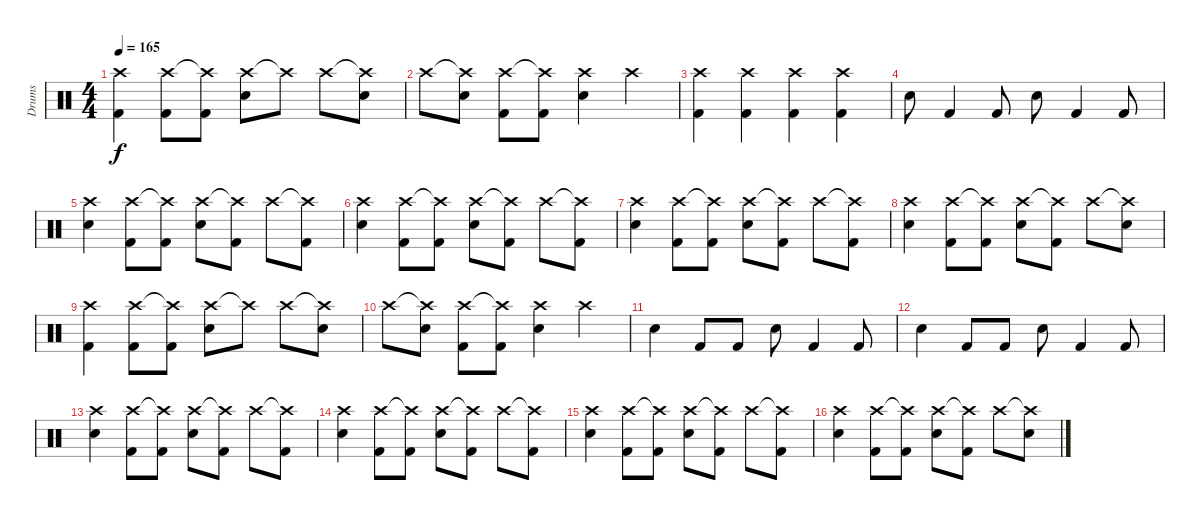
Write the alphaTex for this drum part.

\track ("Drums" "Drums") {instrument percussion}
\staff {score}
\articulation defaults
\ts (4 4)
\tempo 165
\clef neutral
\ks c
("Crash high (hit)" "Kick (hit) 2").4{dy f} ("Crash high (hit)" "Kick (hit) 2").8 ("Crash high (hit)"{t} "Kick (hit) 2").8 ("Crash high (hit)" "Snare (hit) 2").8 "Crash high (hit)"{t}.8 "Crash high (hit)".8 ("Crash high (hit)"{t} "Snare (hit) 2").8 |
"Crash high (hit)".8 ("Crash high (hit)"{t} "Snare (hit) 2").8 ("Crash high (hit)" "Kick (hit) 2").8 ("Crash high (hit)"{t} "Kick (hit) 2").8 ("Crash high (hit)" "Snare (hit) 2").4 "Crash high (hit)".4 |
("Crash high (hit)" "Kick (hit) 2").4 ("Crash high (hit)" "Kick (hit) 2").4 ("Crash high (hit)" "Kick (hit) 2").4 ("Crash high (hit)" "Kick (hit) 2").4 |
"Snare (hit) 2".8 "Kick (hit) 2".4 "Kick (hit) 2".8 "Snare (hit) 2".8 "Kick (hit) 2".4 "Kick (hit) 2".8 |
("Crash high (hit)" "Snare (hit) 2").4 ("Crash high (hit)" "Kick (hit) 2").8 ("Crash high (hit)"{t} "Kick (hit) 2").8 ("Crash high (hit)" "Snare (hit) 2").8 ("Crash high (hit)"{t} "Kick (hit) 2").8 "Crash high (hit)".8 ("Crash high (hit)"{t} "Kick (hit) 2").8 |
("Crash high (hit)" "Snare (hit) 2").4 ("Crash high (hit)" "Kick (hit) 2").8 ("Crash high (hit)"{t} "Kick (hit) 2").8 ("Crash high (hit)" "Snare (hit) 2").8 ("Crash high (hit)"{t} "Kick (hit) 2").8 "Crash high (hit)".8 ("Crash high (hit)"{t} "Kick (hit) 2").8 |
("Crash high (hit)" "Snare (hit) 2").4 ("Crash high (hit)" "Kick (hit) 2").8 ("Crash high (hit)"{t} "Kick (hit) 2").8 ("Crash high (hit)" "Snare (hit) 2").8 ("Crash high (hit)"{t} "Kick (hit) 2").8 "Crash high (hit)".8 ("Crash high (hit)"{t} "Kick (hit) 2").8 |
("Crash high (hit)" "Snare (hit) 2").4 ("Crash high (hit)" "Kick (hit) 2").8 ("Crash high (hit)"{t} "Kick (hit) 2").8 ("Crash high (hit)" "Snare (hit) 2").8 ("Crash high (hit)"{t} "Kick (hit) 2").8 "Crash high (hit)".8 ("Crash high (hit)"{t} "Snare (hit) 2").8 |
("Crash high (hit)" "Kick (hit) 2").4 ("Crash high (hit)" "Kick (hit) 2").8 ("Crash high (hit)"{t} "Kick (hit) 2").8 ("Crash high (hit)" "Snare (hit) 2").8 "Crash high (hit)"{t}.8 "Crash high (hit)".8 ("Crash high (hit)"{t} "Snare (hit) 2").8 |
"Crash high (hit)".8 ("Crash high (hit)"{t} "Snare (hit) 2").8 ("Crash high (hit)" "Kick (hit) 2").8 ("Crash high (hit)"{t} "Kick (hit) 2").8 ("Crash high (hit)" "Snare (hit) 2").4 "Crash high (hit)".4 |
"Snare (hit) 2".4 "Kick (hit) 2".8 "Kick (hit) 2".8 "Snare (hit) 2".8 "Kick (hit) 2".4 "Kick (hit) 2".8 |
"Snare (hit) 2".4 "Kick (hit) 2".8 "Kick (hit) 2".8 "Snare (hit) 2".8 "Kick (hit) 2".4 "Kick (hit) 2".8 |
("Crash high (hit)" "Snare (hit) 2").4 ("Crash high (hit)" "Kick (hit) 2").8 ("Crash high (hit)"{t} "Kick (hit) 2").8 ("Crash high (hit)" "Snare (hit) 2").8 ("Crash high (hit)"{t} "Kick (hit) 2").8 "Crash high (hit)".8 ("Crash high (hit)"{t} "Kick (hit) 2").8 |
("Crash high (hit)" "Snare (hit) 2").4 ("Crash high (hit)" "Kick (hit) 2").8 ("Crash high (hit)"{t} "Kick (hit) 2").8 ("Crash high (hit)" "Snare (hit) 2").8 ("Crash high (hit)"{t} "Kick (hit) 2").8 "Crash high (hit)".8 ("Crash high (hit)"{t} "Kick (hit) 2").8 |
("Crash high (hit)" "Snare (hit) 2").4 ("Crash high (hit)" "Kick (hit) 2").8 ("Crash high (hit)"{t} "Kick (hit) 2").8 ("Crash high (hit)" "Snare (hit) 2").8 ("Crash high (hit)"{t} "Kick (hit) 2").8 "Crash high (hit)".8 ("Crash high (hit)"{t} "Kick (hit) 2").8 |
("Crash high (hit)" "Snare (hit) 2").4 ("Crash high (hit)" "Kick (hit) 2").8 ("Crash high (hit)"{t} "Kick (hit) 2").8 ("Crash high (hit)" "Snare (hit) 2").8 ("Crash high (hit)"{t} "Kick (hit) 2").8 "Crash high (hit)".8 ("Crash high (hit)"{t} "Snare (hit) 2").8
